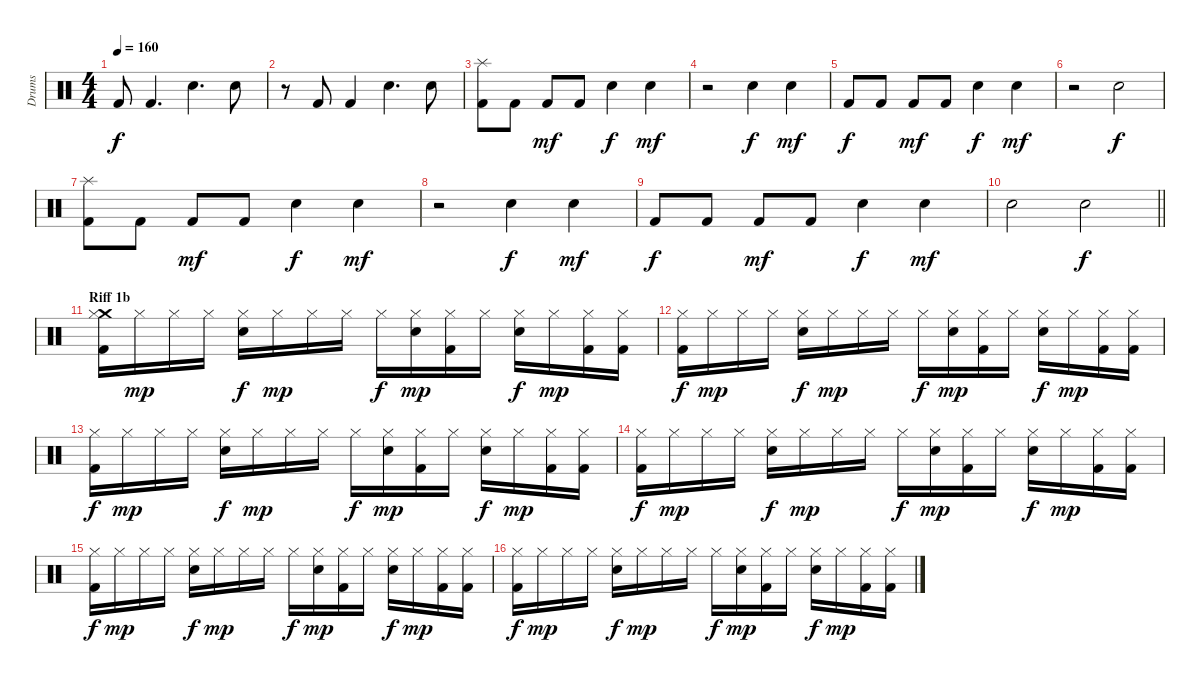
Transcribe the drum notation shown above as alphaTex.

\track ("Drums" "Drums") {instrument percussion}
\staff {score}
\articulation defaults
\ts (4 4)
\tempo 160
\clef neutral
\ks c "Kick (hit) 2".8{dy f} "Kick (hit) 2".4{d} "Snare (hit) 2".4{d} "Snare (hit) 2".8
|
r.8 "Kick (hit) 2".8 "Kick (hit) 2".4 "Snare (hit) 2".4{d} "Snare (hit) 2".8 |
("Kick (hit) 2" "Splash (hit)").8 "Kick (hit) 2".8 "Kick (hit) 2".8{dy mf} "Kick (hit) 2".8 "Snare (hit) 2".4{dy f} "Snare (hit) 2".4{dy mf} |
r.2 "Snare (hit) 2".4{dy f} "Snare (hit) 2".4{dy mf} |
"Kick (hit) 2".8{dy f} "Kick (hit) 2".8 "Kick (hit) 2".8{dy mf} "Kick (hit) 2".8 "Snare (hit) 2".4{dy f} "Snare (hit) 2".4{dy mf} |
r.2 "Snare (hit) 2".2{dy f} |
("Kick (hit) 2" "Splash (hit)").8 "Kick (hit) 2".8 "Kick (hit) 2".8{dy mf} "Kick (hit) 2".8 "Snare (hit) 2".4{dy f} "Snare (hit) 2".4{dy mf} |
r.2 "Snare (hit) 2".4{dy f} "Snare (hit) 2".4{dy mf} |
"Kick (hit) 2".8{dy f} "Kick (hit) 2".8 "Kick (hit) 2".8{dy mf} "Kick (hit) 2".8 "Snare (hit) 2".4{dy f} "Snare (hit) 2".4{dy mf} |
\barLineRight lightlight "Snare (hit) 2".2 "Snare (hit) 2".2{dy f}
|
\section ("" "Riff 1b")
("Kick (hit) 2" "Crash medium (hit)" "Hi-Hat (closed)").16 "Hi-Hat (closed)".16{dy mp} "Hi-Hat (closed)".16 "Hi-Hat (closed)".16 ("Snare (hit) 2" "Hi-Hat (closed)").16{dy f} "Hi-Hat (closed)".16{dy mp} "Hi-Hat (closed)".16 "Hi-Hat (closed)".16 "Hi-Hat (closed)".16{dy f} ("Snare (hit) 2" "Hi-Hat (closed)").16{dy mp} ("Kick (hit) 2" "Hi-Hat (closed)").16 "Hi-Hat (closed)".16 ("Snare (hit) 2" "Hi-Hat (closed)").16{dy f} "Hi-Hat (closed)".16{dy mp} ("Kick (hit) 2" "Hi-Hat (closed)").16 ("Kick (hit) 2" "Hi-Hat (closed)").16 |
("Kick (hit) 2" "Hi-Hat (closed)").16{dy f} "Hi-Hat (closed)".16{dy mp} "Hi-Hat (closed)".16 "Hi-Hat (closed)".16 ("Snare (hit) 2" "Hi-Hat (closed)").16{dy f} "Hi-Hat (closed)".16{dy mp} "Hi-Hat (closed)".16 "Hi-Hat (closed)".16 "Hi-Hat (closed)".16{dy f} ("Snare (hit) 2" "Hi-Hat (closed)").16{dy mp} ("Kick (hit) 2" "Hi-Hat (closed)").16 "Hi-Hat (closed)".16 ("Snare (hit) 2" "Hi-Hat (closed)").16{dy f} "Hi-Hat (closed)".16{dy mp} ("Kick (hit) 2" "Hi-Hat (closed)").16 ("Kick (hit) 2" "Hi-Hat (closed)").16 |
("Kick (hit) 2" "Hi-Hat (closed)").16{dy f} "Hi-Hat (closed)".16{dy mp} "Hi-Hat (closed)".16 "Hi-Hat (closed)".16 ("Snare (hit) 2" "Hi-Hat (closed)").16{dy f} "Hi-Hat (closed)".16{dy mp} "Hi-Hat (closed)".16 "Hi-Hat (closed)".16 "Hi-Hat (closed)".16{dy f} ("Snare (hit) 2" "Hi-Hat (closed)").16{dy mp} ("Kick (hit) 2" "Hi-Hat (closed)").16 "Hi-Hat (closed)".16 ("Snare (hit) 2" "Hi-Hat (closed)").16{dy f} "Hi-Hat (closed)".16{dy mp} ("Kick (hit) 2" "Hi-Hat (closed)").16 ("Kick (hit) 2" "Hi-Hat (closed)").16 |
("Kick (hit) 2" "Hi-Hat (closed)").16{dy f} "Hi-Hat (closed)".16{dy mp} "Hi-Hat (closed)".16 "Hi-Hat (closed)".16 ("Snare (hit) 2" "Hi-Hat (closed)").16{dy f} "Hi-Hat (closed)".16{dy mp} "Hi-Hat (closed)".16 "Hi-Hat (closed)".16 "Hi-Hat (closed)".16{dy f} ("Snare (hit) 2" "Hi-Hat (closed)").16{dy mp} ("Kick (hit) 2" "Hi-Hat (closed)").16 "Hi-Hat (closed)".16 ("Snare (hit) 2" "Hi-Hat (closed)").16{dy f} "Hi-Hat (closed)".16{dy mp} ("Kick (hit) 2" "Hi-Hat (closed)").16 ("Kick (hit) 2" "Hi-Hat (closed)").16 |
("Kick (hit) 2" "Hi-Hat (closed)").16{dy f} "Hi-Hat (closed)".16{dy mp} "Hi-Hat (closed)".16 "Hi-Hat (closed)".16 ("Snare (hit) 2" "Hi-Hat (closed)").16{dy f} "Hi-Hat (closed)".16{dy mp} "Hi-Hat (closed)".16 "Hi-Hat (closed)".16 "Hi-Hat (closed)".16{dy f} ("Snare (hit) 2" "Hi-Hat (closed)").16{dy mp} ("Kick (hit) 2" "Hi-Hat (closed)").16 "Hi-Hat (closed)".16 ("Snare (hit) 2" "Hi-Hat (closed)").16{dy f} "Hi-Hat (closed)".16{dy mp} ("Kick (hit) 2" "Hi-Hat (closed)").16 ("Kick (hit) 2" "Hi-Hat (closed)").16 |
("Kick (hit) 2" "Hi-Hat (closed)").16{dy f} "Hi-Hat (closed)".16{dy mp} "Hi-Hat (closed)".16 "Hi-Hat (closed)".16 ("Snare (hit) 2" "Hi-Hat (closed)").16{dy f} "Hi-Hat (closed)".16{dy mp} "Hi-Hat (closed)".16 "Hi-Hat (closed)".16 "Hi-Hat (closed)".16{dy f} ("Snare (hit) 2" "Hi-Hat (closed)").16{dy mp} ("Kick (hit) 2" "Hi-Hat (closed)").16 "Hi-Hat (closed)".16 ("Snare (hit) 2" "Hi-Hat (closed)").16{dy f} "Hi-Hat (closed)".16{dy mp} ("Kick (hit) 2" "Hi-Hat (closed)").16 ("Kick (hit) 2" "Hi-Hat (closed)").16
